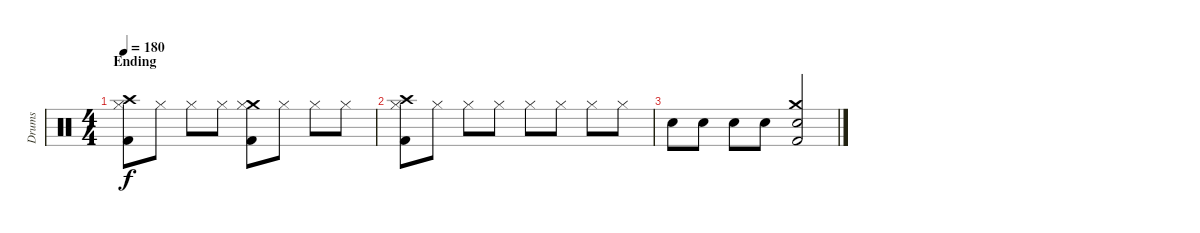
\track ("Drums" "Drums") {instrument percussion}
\staff {score}
\articulation defaults
\ts (4 4)
\section ("" "Ending")
\tempo 180
\clef neutral
\ks c
("Crash high (hit)" "Hi-Hat (closed)" "Kick (hit) 2").8{dy f} "Hi-Hat (closed)".8 "Hi-Hat (closed)".8 "Hi-Hat (closed)".8 ("Crash medium (hit)" "Hi-Hat (closed)" "Kick (hit) 2").8 "Hi-Hat (closed)".8 "Hi-Hat (closed)".8 "Hi-Hat (closed)".8 |
("Crash high (hit)" "Kick (hit) 2" "Hi-Hat (closed)").8 "Hi-Hat (closed)".8 "Hi-Hat (closed)".8 "Hi-Hat (closed)".8 "Hi-Hat (closed)".8 "Hi-Hat (closed)".8 "Hi-Hat (closed)".8 "Hi-Hat (closed)".8 |
"Snare (hit) 2".8 "Snare (hit) 2".8 "Snare (hit) 2".8 "Snare (hit) 2".8 ("Crash medium (hit)" "Snare (hit) 2" "Kick (hit) 2").2
